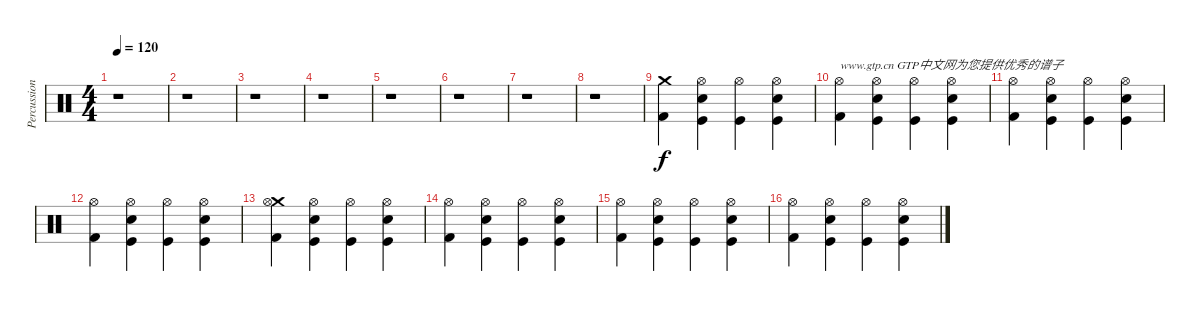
\track ("Percussion" "Percussion") {instrument percussion}
\staff {score}
\articulation defaults
\ts (4 4)
\tempo 120
\clef neutral
\ks c
r.1{dy f} |
r.1 |
r.1 |
r.1 |
r.1 |
r.1 |
r.1 |
r.1 |
("Crash medium (hit)" "Kick (hit) 2").4 ("Snare (hit) 2" "Kick (hit)" "Hi-Hat (open)").4 ("Kick (hit)" "Hi-Hat (open)").4 ("Snare (hit) 2" "Kick (hit)" "Hi-Hat (open)").4 |
("Kick (hit) 2" "Hi-Hat (open)").4{txt "www.gtp.cn GTP中文网为您提供优秀的谱子"} ("Snare (hit) 2" "Kick (hit)" "Hi-Hat (open)").4 ("Kick (hit)" "Hi-Hat (open)").4 ("Snare (hit) 2" "Kick (hit)" "Hi-Hat (open)").4 |
("Kick (hit) 2" "Hi-Hat (open)").4 ("Snare (hit) 2" "Kick (hit)" "Hi-Hat (open)").4 ("Kick (hit)" "Hi-Hat (open)").4 ("Snare (hit) 2" "Kick (hit)" "Hi-Hat (open)").4 |
("Kick (hit) 2" "Hi-Hat (open)").4 ("Snare (hit) 2" "Kick (hit)" "Hi-Hat (open)").4 ("Kick (hit)" "Hi-Hat (open)").4 ("Snare (hit) 2" "Kick (hit)" "Hi-Hat (open)").4 |
("Crash medium (hit)" "Kick (hit) 2" "Hi-Hat (open)").4 ("Snare (hit) 2" "Kick (hit)" "Hi-Hat (open)").4 ("Kick (hit)" "Hi-Hat (open)").4 ("Snare (hit) 2" "Kick (hit)" "Hi-Hat (open)").4 |
("Kick (hit) 2" "Hi-Hat (open)").4 ("Snare (hit) 2" "Kick (hit)" "Hi-Hat (open)").4 ("Kick (hit)" "Hi-Hat (open)").4 ("Snare (hit) 2" "Kick (hit)" "Hi-Hat (open)").4 |
("Kick (hit) 2" "Hi-Hat (open)").4 ("Snare (hit) 2" "Kick (hit)" "Hi-Hat (open)").4 ("Kick (hit)" "Hi-Hat (open)").4 ("Snare (hit) 2" "Kick (hit)" "Hi-Hat (open)").4 |
("Kick (hit) 2" "Hi-Hat (open)").4 ("Snare (hit) 2" "Kick (hit)" "Hi-Hat (open)").4 ("Kick (hit)" "Hi-Hat (open)").4 ("Snare (hit) 2" "Kick (hit)" "Hi-Hat (open)").4
